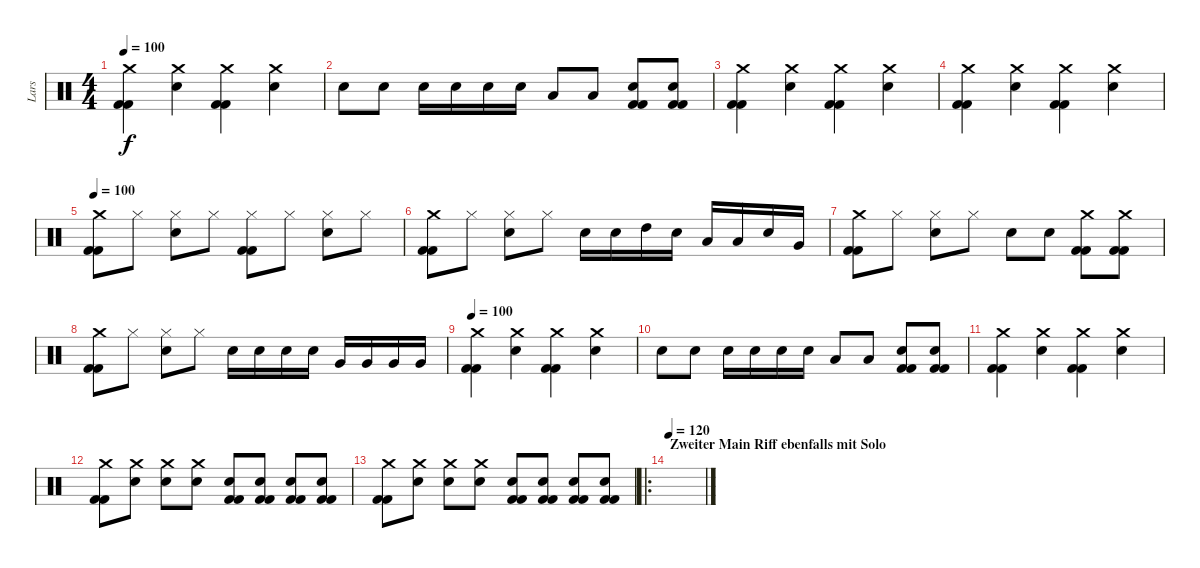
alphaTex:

\track ("Lars" "Lars") {instrument percussion}
\staff {score}
\articulation defaults
\ts (4 4)
\tempo 100
\clef neutral
\ks c
("Crash medium (hit)" "Kick (hit) 2" "Kick (hit) 2").4{dy f} ("Electric Snare (hit)" "Crash medium (hit)").4 ("Crash medium (hit)" "Kick (hit) 2" "Kick (hit) 2").4 ("Electric Snare (hit)" "Crash medium (hit)").4 |
"Electric Snare (hit)".8 "Electric Snare (hit)".8 "Electric Snare (hit)".16 "Electric Snare (hit)".16 "Electric Snare (hit)".16 "Electric Snare (hit)".16 "Low Tom (hit)".8 "Low Tom (hit)".8 ("Kick (hit) 2" "Kick (hit) 2" "Electric Snare (hit)").8 ("Electric Snare (hit)" "Kick (hit) 2" "Kick (hit) 2").8 |
("Crash medium (hit)" "Kick (hit) 2" "Kick (hit) 2").4 ("Electric Snare (hit)" "Crash medium (hit)").4 ("Crash medium (hit)" "Kick (hit) 2" "Kick (hit) 2").4 ("Electric Snare (hit)" "Crash medium (hit)").4 |
("Crash medium (hit)" "Kick (hit) 2" "Kick (hit) 2").4 ("Electric Snare (hit)" "Crash medium (hit)").4 ("Crash medium (hit)" "Kick (hit) 2" "Kick (hit) 2").4 ("Electric Snare (hit)" "Crash medium (hit)").4 |
\tempo 100
("Crash medium (hit)" "Kick (hit) 2" "Kick (hit) 2").8 "Hi-Hat (closed)".8 ("Electric Snare (hit)" "Hi-Hat (closed)").8 "Hi-Hat (closed)".8 ("Kick (hit) 2" "Kick (hit) 2" "Hi-Hat (closed)").8 "Hi-Hat (closed)".8 ("Hi-Hat (closed)" "Electric Snare (hit)").8 "Hi-Hat (closed)".8 |
("Crash medium (hit)" "Kick (hit) 2" "Kick (hit) 2").8 "Hi-Hat (closed)".8 ("Electric Snare (hit)" "Hi-Hat (closed)").8 "Hi-Hat (closed)".8 "Electric Snare (hit)".16 "Electric Snare (hit)".16 "High Tom (hit)".16 "Electric Snare (hit)".16 "Low Tom (hit)".16 "Low Tom (hit)".16 "Electric Snare (hit)".16 "Very Low Tom (hit)".16 |
("Crash medium (hit)" "Kick (hit) 2" "Kick (hit) 2").8 "Hi-Hat (closed)".8 ("Electric Snare (hit)" "Hi-Hat (closed)").8 "Hi-Hat (closed)".8 "Electric Snare (hit)".8 "Electric Snare (hit)".8 ("Crash medium (hit)" "Kick (hit) 2" "Kick (hit) 2").8 ("Kick (hit) 2" "Kick (hit) 2" "Crash medium (hit)").8 |
("Crash medium (hit)" "Kick (hit) 2" "Kick (hit) 2").8 "Hi-Hat (closed)".8 ("Electric Snare (hit)" "Hi-Hat (closed)").8 "Hi-Hat (closed)".8 "Electric Snare (hit)".16 "Electric Snare (hit)".16 "Electric Snare (hit)".16 "Electric Snare (hit)".16 "Very Low Tom (hit)".16 "Very Low Tom (hit)".16 "Very Low Tom (hit)".16 "Very Low Tom (hit)".16 |
\tempo 100
("Crash medium (hit)" "Kick (hit) 2" "Kick (hit) 2").4 ("Electric Snare (hit)" "Crash medium (hit)").4 ("Crash medium (hit)" "Kick (hit) 2" "Kick (hit) 2").4 ("Electric Snare (hit)" "Crash medium (hit)").4 |
"Electric Snare (hit)".8 "Electric Snare (hit)".8 "Electric Snare (hit)".16 "Electric Snare (hit)".16 "Electric Snare (hit)".16 "Electric Snare (hit)".16 "Low Tom (hit)".8 "Low Tom (hit)".8 ("Kick (hit) 2" "Kick (hit) 2" "Electric Snare (hit)").8 ("Electric Snare (hit)" "Kick (hit) 2" "Kick (hit) 2").8 |
("Crash medium (hit)" "Kick (hit) 2" "Kick (hit) 2").4 ("Electric Snare (hit)" "Crash medium (hit)").4 ("Crash medium (hit)" "Kick (hit) 2" "Kick (hit) 2").4 ("Electric Snare (hit)" "Crash medium (hit)").4 |
("Crash medium (hit)" "Kick (hit) 2" "Kick (hit) 2").8 ("Electric Snare (hit)" "Crash medium (hit)").8 ("Crash medium (hit)" "Electric Snare (hit)").8 ("Electric Snare (hit)" "Crash medium (hit)").8 ("Kick (hit) 2" "Kick (hit) 2" "Electric Snare (hit)").8 ("Electric Snare (hit)" "Kick (hit) 2" "Kick (hit) 2").8 ("Kick (hit) 2" "Kick (hit) 2" "Electric Snare (hit)").8 ("Electric Snare (hit)" "Kick (hit) 2" "Kick (hit) 2").8 |
("Crash medium (hit)" "Kick (hit) 2" "Kick (hit) 2").8 ("Electric Snare (hit)" "Crash medium (hit)").8 ("Crash medium (hit)" "Electric Snare (hit)").8 ("Electric Snare (hit)" "Crash medium (hit)").8 ("Kick (hit) 2" "Kick (hit) 2" "Electric Snare (hit)").8 ("Electric Snare (hit)" "Kick (hit) 2" "Kick (hit) 2").8 ("Kick (hit) 2" "Kick (hit) 2" "Electric Snare (hit)").8 ("Electric Snare (hit)" "Kick (hit) 2" "Kick (hit) 2").8 |
\ro
\section ("" "Zweiter Main Riff ebenfalls mit Solo")
\tempo 120
